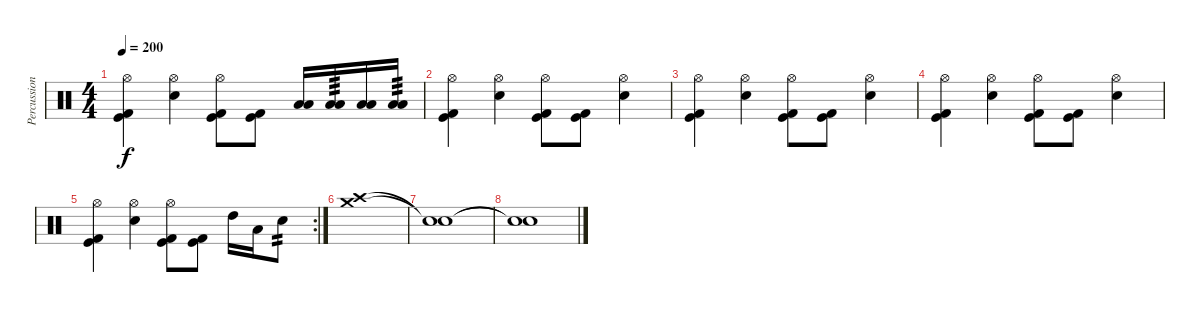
\track ("Percussion" "Percussion") {instrument percussion}
\staff {score}
\articulation defaults
\ts (4 4)
\tempo 200
\clef neutral
\ks c
("Hi-Hat (open)" "Kick (hit)" "Kick (hit) 2").4{dy f} ("Hi-Hat (open)" "Snare (hit) 2").4 ("Hi-Hat (open)" "Kick (hit)" "Kick (hit) 2").8 ("Kick (hit)" "Kick (hit) 2").8 ("Low Tom (hit)" "Low Floor Tom (hit)").16 ("Low Tom (hit)" "Low Floor Tom (hit)").16{tp 3} ("Low Tom (hit)" "Low Floor Tom (hit)").16 ("Low Tom (hit)" "Low Floor Tom (hit)").16{tp 3} |
("Hi-Hat (open)" "Kick (hit)" "Kick (hit) 2").4 ("Hi-Hat (open)" "Snare (hit) 2").4 ("Hi-Hat (open)" "Kick (hit)" "Kick (hit) 2").8 ("Kick (hit)" "Kick (hit) 2").8 ("Hi-Hat (open)" "Snare (hit) 2").4 |
("Hi-Hat (open)" "Kick (hit)" "Kick (hit) 2").4 ("Hi-Hat (open)" "Snare (hit) 2").4 ("Hi-Hat (open)" "Kick (hit)" "Kick (hit) 2").8 ("Kick (hit)" "Kick (hit) 2").8 ("Hi-Hat (open)" "Snare (hit) 2").4 |
("Hi-Hat (open)" "Kick (hit)" "Kick (hit) 2").4 ("Hi-Hat (open)" "Snare (hit) 2").4 ("Hi-Hat (open)" "Kick (hit)" "Kick (hit) 2").8 ("Kick (hit)" "Kick (hit) 2").8 ("Hi-Hat (open)" "Snare (hit) 2").4 |
\rc 2
("Hi-Hat (open)" "Kick (hit)" "Kick (hit) 2").4 ("Hi-Hat (open)" "Snare (hit) 2").4 ("Hi-Hat (open)" "Kick (hit)" "Kick (hit) 2").8 ("Kick (hit)" "Kick (hit) 2").8 "High Tom (hit)".16 "Low Tom (hit)".16 "Snare (hit) 2".8{tp 2} |
("Crash high (hit)" "Crash medium (hit)").1 |
("Snare (hit)"{t} "Snare (hit)"{t}).1 |
("Snare (hit)"{t} "Snare (hit)"{t}).1
